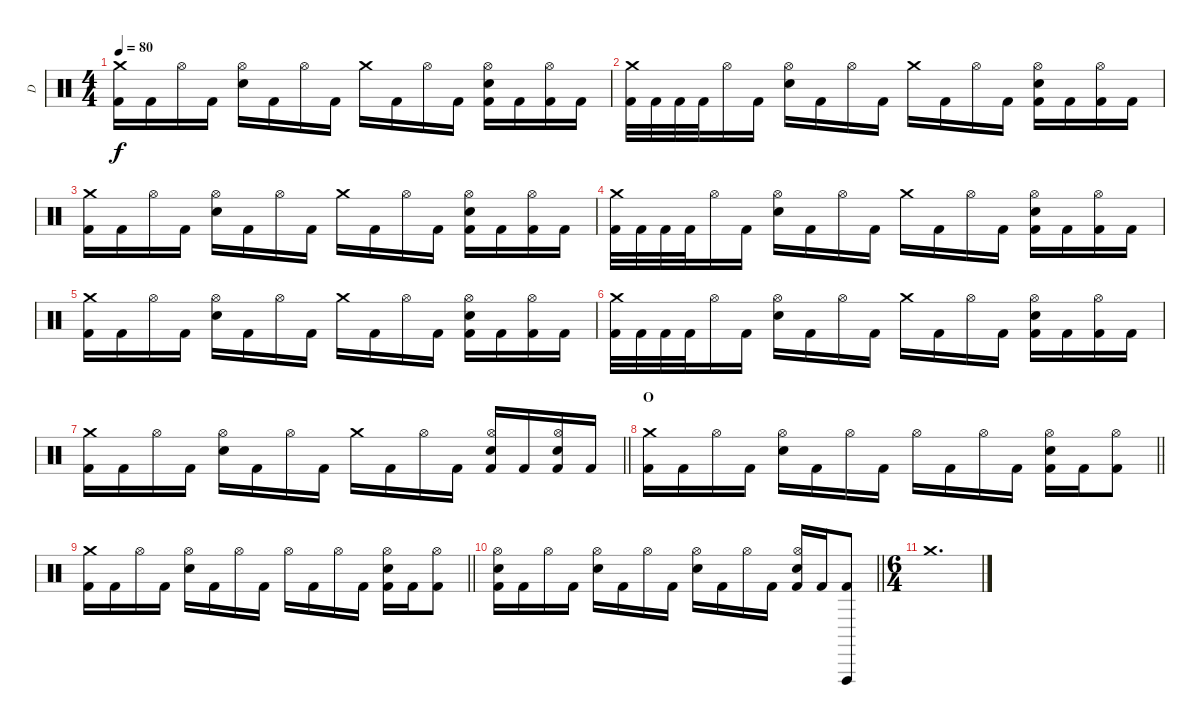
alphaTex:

\track ("D" "D") {instrument percussion}
\staff {score}
\articulation defaults
\ts (4 4)
\tempo 80
\clef neutral
\ks c
("Crash medium (hit)" "Kick (hit) 2").16{dy f} "Kick (hit) 2".16 "Hi-Hat (open)".16 "Kick (hit) 2".16 ("Hi-Hat (open)" "Electric Snare (hit)").16 "Kick (hit) 2".16 "Hi-Hat (open)".16 "Kick (hit) 2".16 "Crash medium (hit)".16 "Kick (hit) 2".16 "Hi-Hat (open)".16 "Kick (hit) 2".16 ("Hi-Hat (open)" "Electric Snare (hit)" "Kick (hit) 2").16 "Kick (hit) 2".16 ("Hi-Hat (open)" "Kick (hit) 2").16 "Kick (hit) 2".16 |
("Crash medium (hit)" "Kick (hit) 2").32 "Kick (hit) 2".32 "Kick (hit) 2".32 "Kick (hit) 2".32 "Hi-Hat (open)".16 "Kick (hit) 2".16 ("Hi-Hat (open)" "Electric Snare (hit)").16 "Kick (hit) 2".16 "Hi-Hat (open)".16 "Kick (hit) 2".16 "Crash medium (hit)".16 "Kick (hit) 2".16 "Hi-Hat (open)".16 "Kick (hit) 2".16 ("Hi-Hat (open)" "Electric Snare (hit)" "Kick (hit) 2").16 "Kick (hit) 2".16 ("Hi-Hat (open)" "Kick (hit) 2").16 "Kick (hit) 2".16 |
("Crash medium (hit)" "Kick (hit) 2").16 "Kick (hit) 2".16 "Hi-Hat (open)".16 "Kick (hit) 2".16 ("Hi-Hat (open)" "Electric Snare (hit)").16 "Kick (hit) 2".16 "Hi-Hat (open)".16 "Kick (hit) 2".16 "Crash medium (hit)".16 "Kick (hit) 2".16 "Hi-Hat (open)".16 "Kick (hit) 2".16 ("Hi-Hat (open)" "Electric Snare (hit)" "Kick (hit) 2").16 "Kick (hit) 2".16 ("Hi-Hat (open)" "Kick (hit) 2").16 "Kick (hit) 2".16 |
("Crash medium (hit)" "Kick (hit) 2").32 "Kick (hit) 2".32 "Kick (hit) 2".32 "Kick (hit) 2".32 "Hi-Hat (open)".16 "Kick (hit) 2".16 ("Hi-Hat (open)" "Electric Snare (hit)").16 "Kick (hit) 2".16 "Hi-Hat (open)".16 "Kick (hit) 2".16 "Crash medium (hit)".16 "Kick (hit) 2".16 "Hi-Hat (open)".16 "Kick (hit) 2".16 ("Hi-Hat (open)" "Electric Snare (hit)" "Kick (hit) 2").16 "Kick (hit) 2".16 ("Hi-Hat (open)" "Kick (hit) 2").16 "Kick (hit) 2".16 |
("Crash medium (hit)" "Kick (hit) 2").16 "Kick (hit) 2".16 "Hi-Hat (open)".16 "Kick (hit) 2".16 ("Hi-Hat (open)" "Electric Snare (hit)").16 "Kick (hit) 2".16 "Hi-Hat (open)".16 "Kick (hit) 2".16 "Crash medium (hit)".16 "Kick (hit) 2".16 "Hi-Hat (open)".16 "Kick (hit) 2".16 ("Hi-Hat (open)" "Electric Snare (hit)" "Kick (hit) 2").16 "Kick (hit) 2".16 ("Hi-Hat (open)" "Kick (hit) 2").16 "Kick (hit) 2".16 |
("Crash medium (hit)" "Kick (hit) 2").32 "Kick (hit) 2".32 "Kick (hit) 2".32 "Kick (hit) 2".32 "Hi-Hat (open)".16 "Kick (hit) 2".16 ("Hi-Hat (open)" "Electric Snare (hit)").16 "Kick (hit) 2".16 "Hi-Hat (open)".16 "Kick (hit) 2".16 "Crash medium (hit)".16 "Kick (hit) 2".16 "Hi-Hat (open)".16 "Kick (hit) 2".16 ("Hi-Hat (open)" "Electric Snare (hit)" "Kick (hit) 2").16 "Kick (hit) 2".16 ("Hi-Hat (open)" "Kick (hit) 2").16 "Kick (hit) 2".16 |
\barLineRight lightlight
("Crash medium (hit)" "Kick (hit) 2").16 "Kick (hit) 2".16 "Hi-Hat (open)".16 "Kick (hit) 2".16 ("Hi-Hat (open)" "Electric Snare (hit)").16 "Kick (hit) 2".16 "Hi-Hat (open)".16 "Kick (hit) 2".16 "Crash medium (hit)".16 "Kick (hit) 2".16 "Hi-Hat (open)".16 "Kick (hit) 2".16 ("Hi-Hat (open)" "Electric Snare (hit)" "Kick (hit) 2").16 "Kick (hit) 2".16 ("Hi-Hat (open)" "Electric Snare (hit)" "Kick (hit) 2").16 "Kick (hit) 2".16 |
\section ("" "O")
\barLineRight lightlight
("Crash medium (hit)" "Kick (hit) 2").16 "Kick (hit) 2".16 "Hi-Hat (open)".16 "Kick (hit) 2".16 ("Hi-Hat (open)" "Electric Snare (hit)").16 "Kick (hit) 2".16 "Hi-Hat (open)".16 "Kick (hit) 2".16 "Hi-Hat (open)".16 "Kick (hit) 2".16 "Hi-Hat (open)".16 "Kick (hit) 2".16 ("Hi-Hat (open)" "Electric Snare (hit)" "Kick (hit) 2").16 "Kick (hit) 2".16 ("Hi-Hat (open)" "Kick (hit) 2").8 |
\barLineRight lightlight
("Crash medium (hit)" "Kick (hit) 2").16 "Kick (hit) 2".16 "Hi-Hat (open)".16 "Kick (hit) 2".16 ("Hi-Hat (open)" "Electric Snare (hit)").16 "Kick (hit) 2".16 "Hi-Hat (open)".16 "Kick (hit) 2".16 "Hi-Hat (open)".16 "Kick (hit) 2".16 "Hi-Hat (open)".16 "Kick (hit) 2".16 ("Hi-Hat (open)" "Electric Snare (hit)" "Kick (hit) 2").16 "Kick (hit) 2".16 ("Hi-Hat (open)" "Kick (hit) 2").8 |
\barLineRight lightlight
("Hi-Hat (open)" "Electric Snare (hit)" "Kick (hit) 2").16 "Kick (hit) 2".16 "Hi-Hat (open)".16 "Kick (hit) 2".16 ("Hi-Hat (open)" "Electric Snare (hit)").16 "Kick (hit) 2".16 "Hi-Hat (open)".16 "Kick (hit) 2".16 ("Hi-Hat (open)" "Electric Snare (hit)").16 "Kick (hit) 2".16 "Hi-Hat (open)".16 "Kick (hit) 2".16 ("Hi-Hat (open)" "Electric Snare (hit)" "Kick (hit) 2").16 "Kick (hit) 2".16 ("Vibraslap (hit)" "Kick (hit) 2").8 |
\ts (6 4)
"Crash medium (hit)".1{d}
